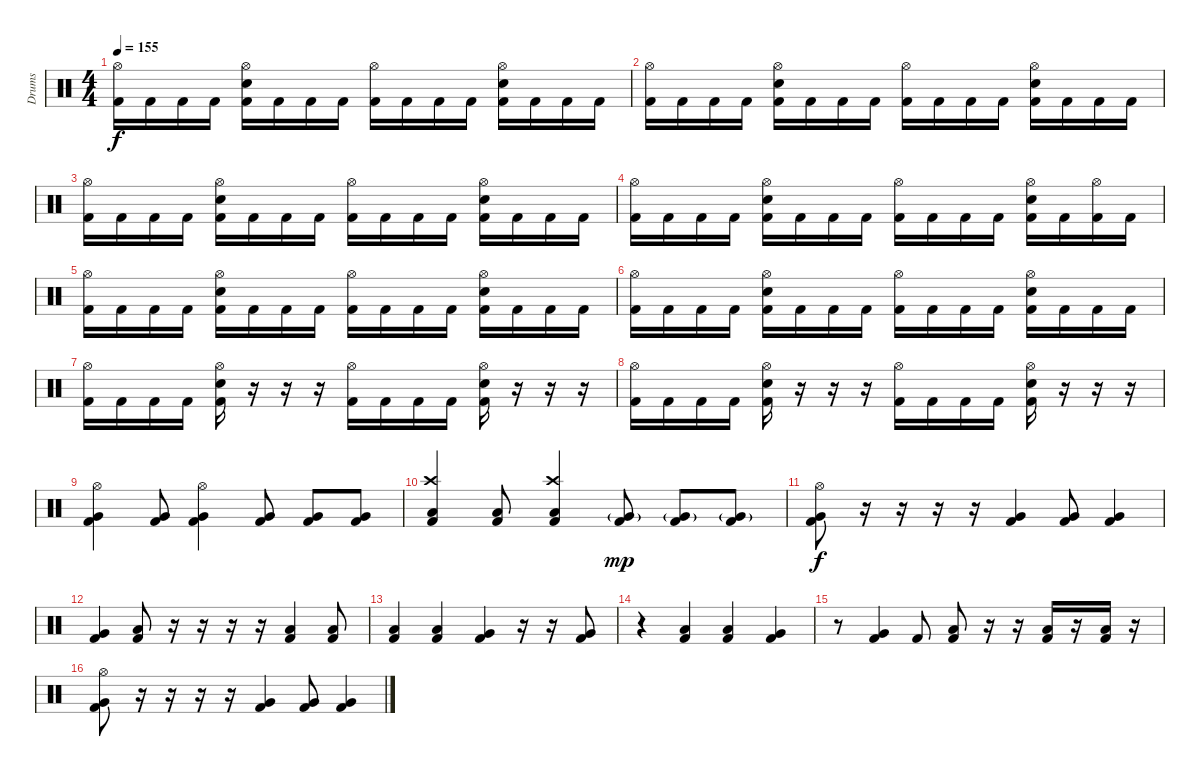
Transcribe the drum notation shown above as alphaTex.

\track ("Drums" "Drums") {instrument percussion}
\staff {score}
\articulation defaults
\ts (4 4)
\tempo 155
\clef neutral
\ks c
("Hi-Hat (open)" "Kick (hit) 2").16{dy f} "Kick (hit) 2".16 "Kick (hit) 2".16 "Kick (hit) 2".16 ("Hi-Hat (open)" "Electric Snare (hit)" "Kick (hit) 2").16 "Kick (hit) 2".16 "Kick (hit) 2".16 "Kick (hit) 2".16 ("Hi-Hat (open)" "Kick (hit) 2").16 "Kick (hit) 2".16 "Kick (hit) 2".16 "Kick (hit) 2".16 ("Hi-Hat (open)" "Electric Snare (hit)" "Kick (hit) 2").16 "Kick (hit) 2".16 "Kick (hit) 2".16 "Kick (hit) 2".16 |
("Hi-Hat (open)" "Kick (hit) 2").16 "Kick (hit) 2".16 "Kick (hit) 2".16 "Kick (hit) 2".16 ("Hi-Hat (open)" "Electric Snare (hit)" "Kick (hit) 2").16 "Kick (hit) 2".16 "Kick (hit) 2".16 "Kick (hit) 2".16 ("Hi-Hat (open)" "Kick (hit) 2").16 "Kick (hit) 2".16 "Kick (hit) 2".16 "Kick (hit) 2".16 ("Hi-Hat (open)" "Electric Snare (hit)" "Kick (hit) 2").16 "Kick (hit) 2".16 "Kick (hit) 2".16 "Kick (hit) 2".16 |
("Hi-Hat (open)" "Kick (hit) 2").16 "Kick (hit) 2".16 "Kick (hit) 2".16 "Kick (hit) 2".16 ("Hi-Hat (open)" "Electric Snare (hit)" "Kick (hit) 2").16 "Kick (hit) 2".16 "Kick (hit) 2".16 "Kick (hit) 2".16 ("Hi-Hat (open)" "Kick (hit) 2").16 "Kick (hit) 2".16 "Kick (hit) 2".16 "Kick (hit) 2".16 ("Hi-Hat (open)" "Electric Snare (hit)" "Kick (hit) 2").16 "Kick (hit) 2".16 "Kick (hit) 2".16 "Kick (hit) 2".16 |
("Hi-Hat (open)" "Kick (hit) 2").16 "Kick (hit) 2".16 "Kick (hit) 2".16 "Kick (hit) 2".16 ("Hi-Hat (open)" "Electric Snare (hit)" "Kick (hit) 2").16 "Kick (hit) 2".16 "Kick (hit) 2".16 "Kick (hit) 2".16 ("Hi-Hat (open)" "Kick (hit) 2").16 "Kick (hit) 2".16 "Kick (hit) 2".16 "Kick (hit) 2".16 ("Hi-Hat (open)" "Electric Snare (hit)" "Kick (hit) 2").16 "Kick (hit) 2".16 ("Hi-Hat (open)" "Kick (hit) 2").16 "Kick (hit) 2".16 |
("Hi-Hat (open)" "Kick (hit) 2").16 "Kick (hit) 2".16 "Kick (hit) 2".16 "Kick (hit) 2".16 ("Hi-Hat (open)" "Electric Snare (hit)" "Kick (hit) 2").16 "Kick (hit) 2".16 "Kick (hit) 2".16 "Kick (hit) 2".16 ("Hi-Hat (open)" "Kick (hit) 2").16 "Kick (hit) 2".16 "Kick (hit) 2".16 "Kick (hit) 2".16 ("Hi-Hat (open)" "Electric Snare (hit)" "Kick (hit) 2").16 "Kick (hit) 2".16 "Kick (hit) 2".16 "Kick (hit) 2".16 |
("Hi-Hat (open)" "Kick (hit) 2").16 "Kick (hit) 2".16 "Kick (hit) 2".16 "Kick (hit) 2".16 ("Hi-Hat (open)" "Electric Snare (hit)" "Kick (hit) 2").16 "Kick (hit) 2".16 "Kick (hit) 2".16 "Kick (hit) 2".16 ("Hi-Hat (open)" "Kick (hit) 2").16 "Kick (hit) 2".16 "Kick (hit) 2".16 "Kick (hit) 2".16 ("Hi-Hat (open)" "Electric Snare (hit)" "Kick (hit) 2").16 "Kick (hit) 2".16 "Kick (hit) 2".16 "Kick (hit) 2".16 |
("Hi-Hat (open)" "Kick (hit) 2").16 "Kick (hit) 2".16 "Kick (hit) 2".16 "Kick (hit) 2".16 ("Hi-Hat (open)" "Electric Snare (hit)" "Kick (hit) 2").16 r.16 r.16 r.16 ("Hi-Hat (open)" "Kick (hit) 2").16 "Kick (hit) 2".16 "Kick (hit) 2".16 "Kick (hit) 2".16 ("Hi-Hat (open)" "Electric Snare (hit)" "Kick (hit) 2").16 r.16 r.16 r.16 |
("Hi-Hat (open)" "Kick (hit) 2").16 "Kick (hit) 2".16 "Kick (hit) 2".16 "Kick (hit) 2".16 ("Hi-Hat (open)" "Electric Snare (hit)" "Kick (hit) 2").16 r.16 r.16 r.16 ("Hi-Hat (open)" "Kick (hit) 2").16 "Kick (hit) 2".16 "Kick (hit) 2".16 "Kick (hit) 2".16 ("Hi-Hat (open)" "Electric Snare (hit)" "Kick (hit) 2").16 r.16 r.16 r.16 |
("Hi-Hat (open)" "Very Low Tom (hit)" "Kick (hit) 2").4 ("Very Low Tom (hit)" "Kick (hit) 2").8 ("Hi-Hat (open)" "Very Low Tom (hit)" "Kick (hit) 2").4 ("Very Low Tom (hit)" "Kick (hit) 2").8 ("Very Low Tom (hit)" "Kick (hit) 2").8 ("Very Low Tom (hit)" "Kick (hit) 2").8 |
("Crash high (hit)" "Low Tom (hit)" "Kick (hit) 2").4 ("Low Tom (hit)" "Kick (hit) 2").8 ("Crash high (hit)" "Low Tom (hit)" "Kick (hit) 2").4 ("Very Low Tom (hit)"{g} "Kick (hit) 2").8{dy mp} ("Very Low Tom (hit)"{g} "Kick (hit) 2").8 ("Very Low Tom (hit)"{g} "Kick (hit) 2").8 |
("Hi-Hat (open)" "Very Low Tom (hit)" "Kick (hit) 2").8{dy f} r.16 r.16 r.16 r.16 ("Very Low Tom (hit)" "Kick (hit) 2").4 ("Very Low Tom (hit)" "Kick (hit) 2").8 ("Very Low Tom (hit)" "Kick (hit) 2").4 |
("Very Low Tom (hit)" "Kick (hit) 2").4 ("Low Tom (hit)" "Kick (hit) 2").8 r.16 r.16 r.16 r.16 ("Low Tom (hit)" "Kick (hit) 2").4 ("Low Tom (hit)" "Kick (hit) 2").8 |
("Low Tom (hit)" "Kick (hit) 2").4 ("Low Tom (hit)" "Kick (hit) 2").4 ("Very Low Tom (hit)" "Kick (hit) 2").4 r.16 r.16 ("Very Low Tom (hit)" "Kick (hit) 2").8 |
r.4 ("Low Tom (hit)" "Kick (hit) 2").4 ("Low Tom (hit)" "Kick (hit) 2").4 ("Very Low Tom (hit)" "Kick (hit) 2").4 |
r.8 ("Very Low Tom (hit)" "Kick (hit) 2").4 "Kick (hit) 2".8 ("Low Tom (hit)" "Kick (hit) 2").8 r.16 r.16 ("Low Tom (hit)" "Kick (hit) 2").16 r.16 ("Low Tom (hit)" "Kick (hit) 2").16 r.16 |
("Hi-Hat (open)" "Very Low Tom (hit)" "Kick (hit) 2").8 r.16 r.16 r.16 r.16 ("Very Low Tom (hit)" "Kick (hit) 2").4 ("Very Low Tom (hit)" "Kick (hit) 2").8 ("Very Low Tom (hit)" "Kick (hit) 2").4
